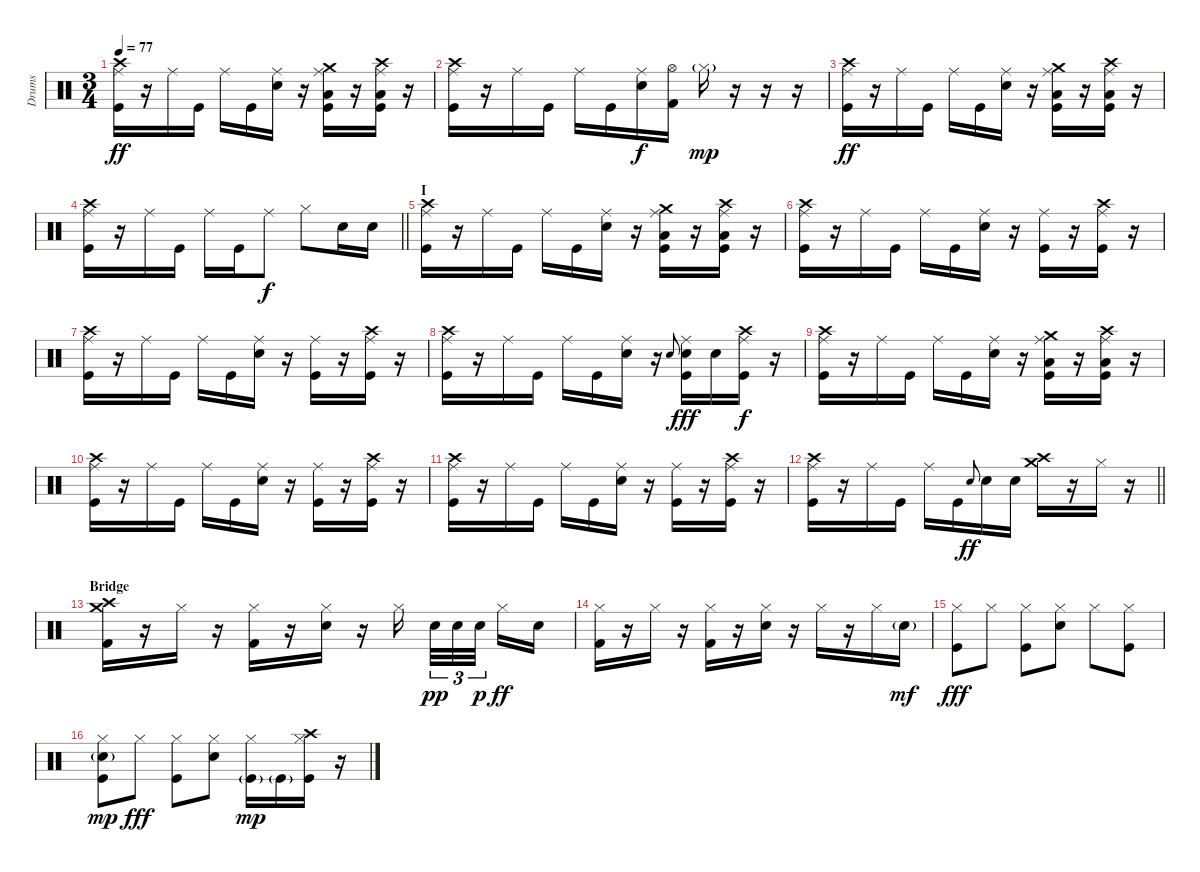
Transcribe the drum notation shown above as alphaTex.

\track ("Drums" "Drums") {instrument percussion}
\staff {score}
\articulation defaults
\ts (3 4)
\tempo 77
\clef neutral
\ks c
("Crash high (hit)" "Ride (middle)" "Kick (hit)").16{dy ff} r.16 "Ride (middle)".16 "Kick (hit)".16 "Ride (middle)".16 "Kick (hit)".16 ("Electric Snare (hit)" "Ride (middle)").16 r.16 ("Kick (hit)" "Low Tom (hit)" "Crash medium (hit)" "Ride (middle)").16 r.16 ("Low Floor Tom (hit)" "Kick (hit)" "Crash high (hit)" "Ride (middle)").16 r.16 |
("Crash high (hit)" "Ride (middle)" "Kick (hit)").16 r.16 "Ride (middle)".16 "Kick (hit)".16 "Ride (middle)".16 "Kick (hit)".16 ("Ride (middle)" "Electric Snare (hit)").16{dy f} ("Hi-Hat (open)" "Kick (hit) 2").16 "Hi-Hat (closed)"{g}.16{dy mp} r.16 r.16 r.16 |
("Crash high (hit)" "Ride (middle)" "Kick (hit)").16{dy ff} r.16 "Ride (middle)".16 "Kick (hit)".16 "Ride (middle)".16 "Kick (hit)".16 ("Electric Snare (hit)" "Ride (middle)").16 r.16 ("Kick (hit)" "Low Tom (hit)" "Crash medium (hit)" "Ride (middle)").16 r.16 ("Low Floor Tom (hit)" "Kick (hit)" "Crash high (hit)" "Ride (middle)").16 r.16 |
\barLineRight lightlight
("Crash high (hit)" "Ride (middle)" "Kick (hit)").16 r.16 "Ride (middle)".16 "Kick (hit)".16 "Ride (middle)".16 "Kick (hit)".16 "Ride (middle)".8{dy f} "Hi-Hat (closed)".8 "Electric Snare (hit)".16 "Electric Snare (hit)".16 |
\section ("" "I")
("Crash high (hit)" "Ride (middle)" "Kick (hit)").16{volume 16} r.16 "Ride (middle)".16 "Kick (hit)".16 "Ride (middle)".16 "Kick (hit)".16 ("Electric Snare (hit)" "Ride (middle)").16 r.16 ("Kick (hit)" "Low Tom (hit)" "Crash medium (hit)" "Ride (middle)").16 r.16 ("Low Floor Tom (hit)" "Kick (hit)" "Crash high (hit)" "Ride (middle)").16 r.16 |
("Crash high (hit)" "Ride (middle)" "Kick (hit)").16 r.16 "Ride (middle)".16 "Kick (hit)".16 "Ride (middle)".16 "Kick (hit)".16 ("Electric Snare (hit)" "Ride (middle)").16 r.16 ("Kick (hit)" "Ride (middle)").16 r.16 ("Kick (hit)" "Crash high (hit)" "Ride (middle)").16 r.16 |
("Crash high (hit)" "Ride (middle)" "Kick (hit)").16 r.16 "Ride (middle)".16 "Kick (hit)".16 "Ride (middle)".16 "Kick (hit)".16 ("Electric Snare (hit)" "Ride (middle)").16 r.16 ("Kick (hit)" "Ride (middle)").16 r.16 ("Kick (hit)" "Crash high (hit)" "Ride (middle)").16 r.16 |
("Crash high (hit)" "Ride (middle)" "Kick (hit)").16 r.16 "Ride (middle)".16 "Kick (hit)".16 "Ride (middle)".16 "Kick (hit)".16 ("Electric Snare (hit)" "Ride (middle)").16 r.16 "Electric Snare (hit)".8{gr onbeat} ("Kick (hit)" "Electric Snare (hit)" "Ride (middle)").16{dy fff} "Electric Snare (hit)".16 ("Kick (hit)" "Crash high (hit)" "Ride (middle)").16{dy f} r.16 |
("Crash high (hit)" "Ride (middle)" "Kick (hit)").16 r.16 "Ride (middle)".16 "Kick (hit)".16 "Ride (middle)".16 "Kick (hit)".16 ("Electric Snare (hit)" "Ride (middle)").16 r.16 ("Kick (hit)" "Low Tom (hit)" "Crash medium (hit)" "Ride (middle)").16 r.16 ("Low Floor Tom (hit)" "Kick (hit)" "Crash high (hit)" "Ride (middle)").16 r.16 |
("Crash high (hit)" "Ride (middle)" "Kick (hit)").16 r.16 "Ride (middle)".16 "Kick (hit)".16 "Ride (middle)".16 "Kick (hit)".16 ("Electric Snare (hit)" "Ride (middle)").16 r.16 ("Kick (hit)" "Ride (middle)").16 r.16 ("Kick (hit)" "Crash high (hit)" "Ride (middle)").16 r.16 |
("Crash high (hit)" "Ride (middle)" "Kick (hit)").16 r.16 "Ride (middle)".16 "Kick (hit)".16 "Ride (middle)".16 "Kick (hit)".16 ("Electric Snare (hit)" "Ride (middle)").16 r.16 ("Kick (hit)" "Ride (middle)").16 r.16 ("Kick (hit)" "Crash high (hit)" "Ride (middle)").16 r.16 |
\barLineRight lightlight
("Crash high (hit)" "Ride (middle)" "Kick (hit)").16 r.16 "Ride (middle)".16 "Kick (hit)".16 "Ride (middle)".16 "Kick (hit)".16 "Electric Snare (hit)".8{gr onbeat dy ff} "Electric Snare (hit)".16 "Electric Snare (hit)".16 ("Crash medium (hit)" "Crash high (hit)").16 r.16 "Hi-Hat (closed)".16 r.16 |
\section ("" "Bridge")
("Crash high (hit)" "Kick (hit) 2" "Crash medium (hit)").16 r.16 "Hi-Hat (closed)".16 r.16 ("Kick (hit) 2" "Hi-Hat (closed)").16 r.16 ("Electric Snare (hit)" "Hi-Hat (closed)").16 r.16 "Hi-Hat (closed)".16{beam splitsecondary} "Electric Snare (hit)".32{tu (3 2) dy pp} "Electric Snare (hit)".32{tu (3 2)} "Electric Snare (hit)".32{tu (3 2) dy p beam splitsecondary} "Hi-Hat (closed)".16{dy ff} "Electric Snare (hit)".16 |
("Hi-Hat (closed)" "Kick (hit) 2").16 r.16 "Hi-Hat (closed)".16 r.16 ("Kick (hit) 2" "Hi-Hat (closed)").16 r.16 ("Electric Snare (hit)" "Hi-Hat (closed)").16 r.16 "Hi-Hat (closed)".16 r.16 "Hi-Hat (closed)".16 "Electric Snare (hit)"{g}.16{dy mf} |
("Hi-Hat (closed)" "Kick (hit)").8{dy fff} "Hi-Hat (closed)".8 ("Hi-Hat (closed)" "Kick (hit)").8 ("Hi-Hat (closed)" "Electric Snare (hit)").8 "Hi-Hat (closed)".8 ("Hi-Hat (closed)" "Kick (hit)").8 |
("Hi-Hat (closed)" "Kick (hit)" "Electric Snare (hit)"{g}).8{dy mp} "Hi-Hat (closed)".8{dy fff} ("Hi-Hat (closed)" "Kick (hit)").8 ("Hi-Hat (closed)" "Electric Snare (hit)").8 ("Hi-Hat (closed)" "Kick (hit)"{g}).16{dy mp} "Kick (hit)"{g}.16 ("Kick (hit)" "Hi-Hat (closed)" "Crash high (hit)").16 r.16
